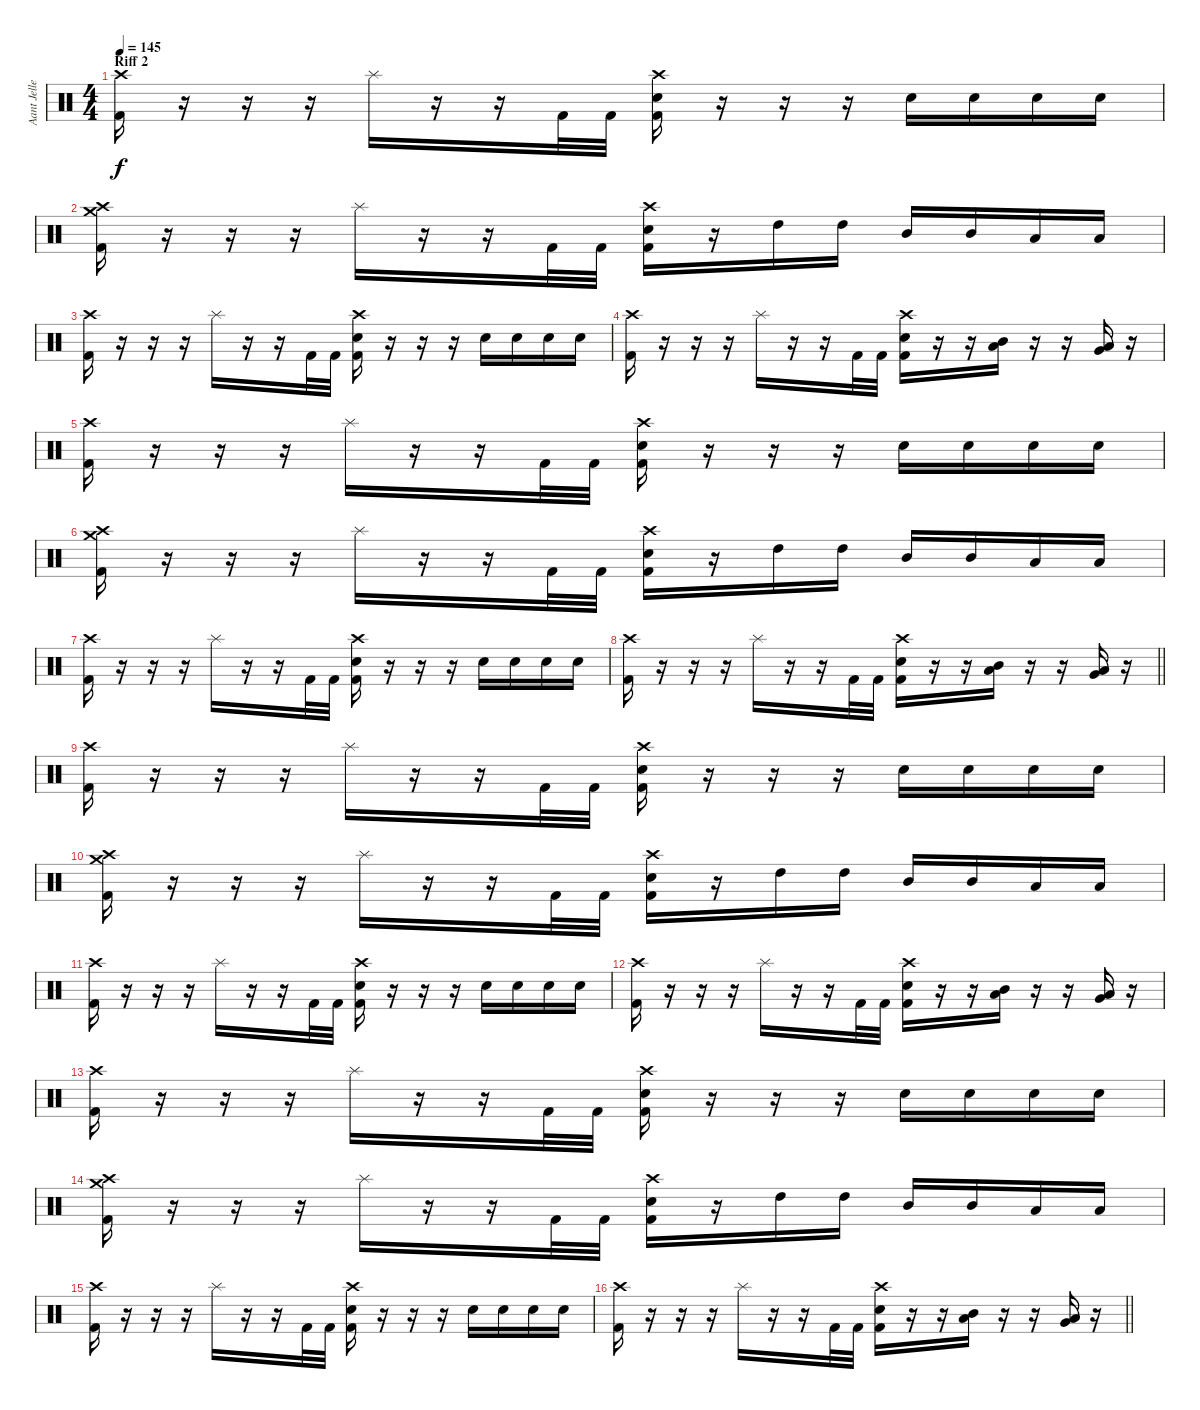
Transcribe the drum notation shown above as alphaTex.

\track ("Aant Jelle" "Aant Jelle") {instrument percussion}
\staff {score}
\articulation defaults
\ts (4 4)
\section ("" "Riff 2")
\tempo 145
\clef neutral
\ks c
("Crash high (hit)" "Kick (hit) 2").16{dy f} r.16 r.16 r.16 "Splash (hit)".16 r.16 r.16 "Kick (hit) 2".32 "Kick (hit) 2".32 ("Crash high (hit)" "Electric Snare (hit)" "Kick (hit) 2").16 r.16 r.16 r.16 "Electric Snare (hit)".16 "Electric Snare (hit)".16 "Electric Snare (hit)".16 "Electric Snare (hit)".16 |
("Crash medium (hit)" "Crash high (hit)" "Kick (hit) 2").16 r.16 r.16 r.16 "Splash (hit)".16 r.16 r.16 "Kick (hit) 2".32 "Kick (hit) 2".32 ("Crash high (hit)" "Electric Snare (hit)" "Kick (hit) 2").16 r.16 "High Tom (hit)".16 "High Tom (hit)".16 "Mid Tom (hit)".16 "Mid Tom (hit)".16 "Low Tom (hit)".16 "Low Tom (hit)".16 |
("Crash high (hit)" "Kick (hit) 2").16 r.16 r.16 r.16 "Splash (hit)".16 r.16 r.16 "Kick (hit) 2".32 "Kick (hit) 2".32 ("Crash high (hit)" "Electric Snare (hit)" "Kick (hit) 2").16 r.16 r.16 r.16 "Electric Snare (hit)".16 "Electric Snare (hit)".16 "Electric Snare (hit)".16 "Electric Snare (hit)".16 |
("Crash high (hit)" "Kick (hit) 2").16 r.16 r.16 r.16 "Splash (hit)".16 r.16 r.16 "Kick (hit) 2".32 "Kick (hit) 2".32 ("Crash high (hit)" "Electric Snare (hit)" "Kick (hit) 2").16 r.16 r.16 ("Mid Tom (hit)" "Low Tom (hit)").16 r.16 r.16 ("Low Tom (hit)" "Very Low Tom (hit)").16 r.16 |
("Crash high (hit)" "Kick (hit) 2").16 r.16 r.16 r.16 "Splash (hit)".16 r.16 r.16 "Kick (hit) 2".32 "Kick (hit) 2".32 ("Crash high (hit)" "Electric Snare (hit)" "Kick (hit) 2").16 r.16 r.16 r.16 "Electric Snare (hit)".16 "Electric Snare (hit)".16 "Electric Snare (hit)".16 "Electric Snare (hit)".16 |
("Crash medium (hit)" "Crash high (hit)" "Kick (hit) 2").16 r.16 r.16 r.16 "Splash (hit)".16 r.16 r.16 "Kick (hit) 2".32 "Kick (hit) 2".32 ("Crash high (hit)" "Electric Snare (hit)" "Kick (hit) 2").16 r.16 "High Tom (hit)".16 "High Tom (hit)".16 "Mid Tom (hit)".16 "Mid Tom (hit)".16 "Low Tom (hit)".16 "Low Tom (hit)".16 |
("Crash high (hit)" "Kick (hit) 2").16 r.16 r.16 r.16 "Splash (hit)".16 r.16 r.16 "Kick (hit) 2".32 "Kick (hit) 2".32 ("Crash high (hit)" "Electric Snare (hit)" "Kick (hit) 2").16 r.16 r.16 r.16 "Electric Snare (hit)".16 "Electric Snare (hit)".16 "Electric Snare (hit)".16 "Electric Snare (hit)".16 |
\barLineRight lightlight
("Crash high (hit)" "Kick (hit) 2").16 r.16 r.16 r.16 "Splash (hit)".16 r.16 r.16 "Kick (hit) 2".32 "Kick (hit) 2".32 ("Crash high (hit)" "Electric Snare (hit)" "Kick (hit) 2").16 r.16 r.16 ("Mid Tom (hit)" "Low Tom (hit)").16 r.16 r.16 ("Low Tom (hit)" "Very Low Tom (hit)").16 r.16 |
("Crash high (hit)" "Kick (hit) 2").16 r.16 r.16 r.16 "Splash (hit)".16 r.16 r.16 "Kick (hit) 2".32 "Kick (hit) 2".32 ("Crash high (hit)" "Electric Snare (hit)" "Kick (hit) 2").16 r.16 r.16 r.16 "Electric Snare (hit)".16 "Electric Snare (hit)".16 "Electric Snare (hit)".16 "Electric Snare (hit)".16 |
("Crash medium (hit)" "Crash high (hit)" "Kick (hit) 2").16 r.16 r.16 r.16 "Splash (hit)".16 r.16 r.16 "Kick (hit) 2".32 "Kick (hit) 2".32 ("Crash high (hit)" "Electric Snare (hit)" "Kick (hit) 2").16 r.16 "High Tom (hit)".16 "High Tom (hit)".16 "Mid Tom (hit)".16 "Mid Tom (hit)".16 "Low Tom (hit)".16 "Low Tom (hit)".16 |
("Crash high (hit)" "Kick (hit) 2").16 r.16 r.16 r.16 "Splash (hit)".16 r.16 r.16 "Kick (hit) 2".32 "Kick (hit) 2".32 ("Crash high (hit)" "Electric Snare (hit)" "Kick (hit) 2").16 r.16 r.16 r.16 "Electric Snare (hit)".16 "Electric Snare (hit)".16 "Electric Snare (hit)".16 "Electric Snare (hit)".16 |
("Crash high (hit)" "Kick (hit) 2").16 r.16 r.16 r.16 "Splash (hit)".16 r.16 r.16 "Kick (hit) 2".32 "Kick (hit) 2".32 ("Crash high (hit)" "Electric Snare (hit)" "Kick (hit) 2").16 r.16 r.16 ("Mid Tom (hit)" "Low Tom (hit)").16 r.16 r.16 ("Low Tom (hit)" "Very Low Tom (hit)").16 r.16 |
("Crash high (hit)" "Kick (hit) 2").16 r.16 r.16 r.16 "Splash (hit)".16 r.16 r.16 "Kick (hit) 2".32 "Kick (hit) 2".32 ("Crash high (hit)" "Electric Snare (hit)" "Kick (hit) 2").16 r.16 r.16 r.16 "Electric Snare (hit)".16 "Electric Snare (hit)".16 "Electric Snare (hit)".16 "Electric Snare (hit)".16 |
("Crash medium (hit)" "Crash high (hit)" "Kick (hit) 2").16 r.16 r.16 r.16 "Splash (hit)".16 r.16 r.16 "Kick (hit) 2".32 "Kick (hit) 2".32 ("Crash high (hit)" "Electric Snare (hit)" "Kick (hit) 2").16 r.16 "High Tom (hit)".16 "High Tom (hit)".16 "Mid Tom (hit)".16 "Mid Tom (hit)".16 "Low Tom (hit)".16 "Low Tom (hit)".16 |
("Crash high (hit)" "Kick (hit) 2").16 r.16 r.16 r.16 "Splash (hit)".16 r.16 r.16 "Kick (hit) 2".32 "Kick (hit) 2".32 ("Crash high (hit)" "Electric Snare (hit)" "Kick (hit) 2").16 r.16 r.16 r.16 "Electric Snare (hit)".16 "Electric Snare (hit)".16 "Electric Snare (hit)".16 "Electric Snare (hit)".16 |
\barLineRight lightlight
("Crash high (hit)" "Kick (hit) 2").16 r.16 r.16 r.16 "Splash (hit)".16 r.16 r.16 "Kick (hit) 2".32 "Kick (hit) 2".32 ("Crash high (hit)" "Electric Snare (hit)" "Kick (hit) 2").16 r.16 r.16 ("Mid Tom (hit)" "Low Tom (hit)").16 r.16 r.16 ("Low Tom (hit)" "Very Low Tom (hit)").16 r.16
